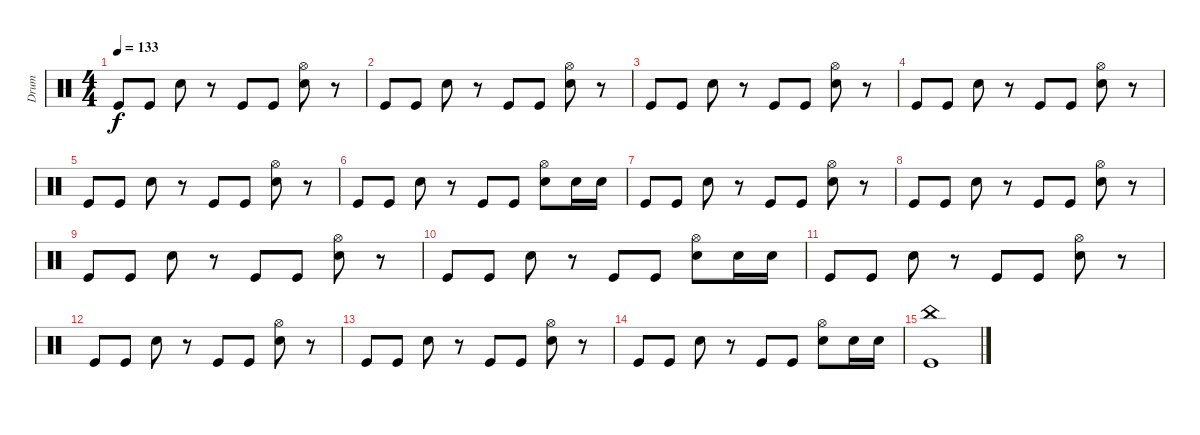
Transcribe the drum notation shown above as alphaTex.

\track ("Drum" "Drum") {instrument percussion}
\staff {score}
\articulation defaults
\ts (4 4)
\tempo 133
\clef neutral
\ks c "Kick (hit)".8{dy f} "Kick (hit)".8 "Snare (hit) 2".8
r.8 "Kick (hit)".8 "Kick (hit)".8 ("Hi-Hat (open)" "Snare (hit) 2").8 r.8 |
"Kick (hit)".8 "Kick (hit)".8 "Snare (hit) 2".8 r.8 "Kick (hit)".8 "Kick (hit)".8 ("Hi-Hat (open)" "Snare (hit) 2").8 r.8 |
"Kick (hit)".8 "Kick (hit)".8 "Snare (hit) 2".8 r.8 "Kick (hit)".8 "Kick (hit)".8 ("Hi-Hat (open)" "Snare (hit) 2").8 r.8 |
"Kick (hit)".8 "Kick (hit)".8 "Snare (hit) 2".8 r.8 "Kick (hit)".8 "Kick (hit)".8 ("Hi-Hat (open)" "Snare (hit) 2").8 r.8 |
"Kick (hit)".8 "Kick (hit)".8 "Snare (hit) 2".8 r.8 "Kick (hit)".8 "Kick (hit)".8 ("Hi-Hat (open)" "Snare (hit) 2").8 r.8 |
"Kick (hit)".8 "Kick (hit)".8 "Snare (hit) 2".8 r.8 "Kick (hit)".8 "Kick (hit)".8 ("Hi-Hat (open)" "Snare (hit) 2").8 "Snare (hit) 2".16 "Snare (hit) 2".16 |
"Kick (hit)".8 "Kick (hit)".8 "Snare (hit) 2".8 r.8 "Kick (hit)".8 "Kick (hit)".8 ("Hi-Hat (open)" "Snare (hit) 2").8 r.8 |
"Kick (hit)".8 "Kick (hit)".8 "Snare (hit) 2".8 r.8 "Kick (hit)".8 "Kick (hit)".8 ("Hi-Hat (open)" "Snare (hit) 2").8 r.8 |
"Kick (hit)".8 "Kick (hit)".8 "Snare (hit) 2".8 r.8 "Kick (hit)".8 "Kick (hit)".8 ("Hi-Hat (open)" "Snare (hit) 2").8 r.8 |
"Kick (hit)".8 "Kick (hit)".8 "Snare (hit) 2".8 r.8 "Kick (hit)".8 "Kick (hit)".8 ("Hi-Hat (open)" "Snare (hit) 2").8 "Snare (hit) 2".16 "Snare (hit) 2".16 |
"Kick (hit)".8 "Kick (hit)".8 "Snare (hit) 2".8 r.8 "Kick (hit)".8 "Kick (hit)".8 ("Hi-Hat (open)" "Snare (hit) 2").8 r.8 |
"Kick (hit)".8 "Kick (hit)".8 "Snare (hit) 2".8 r.8 "Kick (hit)".8 "Kick (hit)".8 ("Hi-Hat (open)" "Snare (hit) 2").8 r.8 |
"Kick (hit)".8 "Kick (hit)".8 "Snare (hit) 2".8 r.8 "Kick (hit)".8 "Kick (hit)".8 ("Hi-Hat (open)" "Snare (hit) 2").8 r.8 |
"Kick (hit)".8 "Kick (hit)".8 "Snare (hit) 2".8 r.8 "Kick (hit)".8 "Kick (hit)".8 ("Hi-Hat (open)" "Snare (hit) 2").8 "Snare (hit) 2".16 "Snare (hit) 2".16 |
("China (hit)" "Kick (hit)").1
